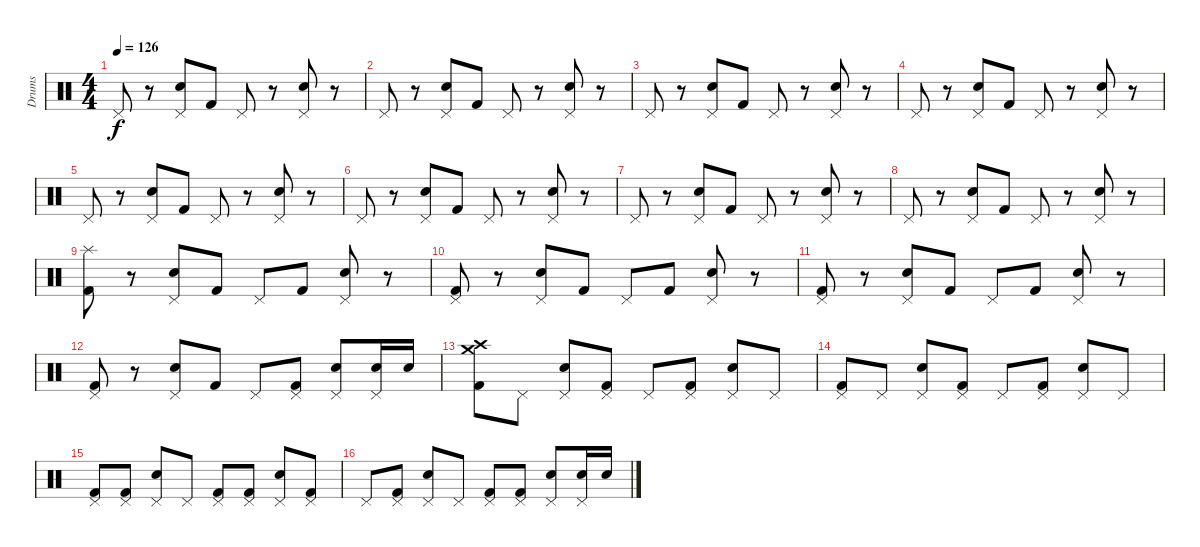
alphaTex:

\track ("Drums" "Drums") {instrument percussion}
\staff {score}
\articulation defaults
\ts (4 4)
\tempo 126
\clef neutral
\ks c "Pedal Hi-Hat (hit)".8{dy f}
r.8 ("Pedal Hi-Hat (hit)" "Snare (hit) 2").8 "Kick (hit) 2".8 "Pedal Hi-Hat (hit)".8 r.8 ("Pedal Hi-Hat (hit)" "Snare (hit) 2").8 r.8 |
"Pedal Hi-Hat (hit)".8 r.8 ("Pedal Hi-Hat (hit)" "Snare (hit) 2").8 "Kick (hit) 2".8 "Pedal Hi-Hat (hit)".8 r.8 ("Pedal Hi-Hat (hit)" "Snare (hit) 2").8 r.8 |
"Pedal Hi-Hat (hit)".8 r.8 ("Pedal Hi-Hat (hit)" "Snare (hit) 2").8 "Kick (hit) 2".8 "Pedal Hi-Hat (hit)".8 r.8 ("Pedal Hi-Hat (hit)" "Snare (hit) 2").8 r.8 |
"Pedal Hi-Hat (hit)".8 r.8 ("Pedal Hi-Hat (hit)" "Snare (hit) 2").8 "Kick (hit) 2".8 "Pedal Hi-Hat (hit)".8 r.8 ("Pedal Hi-Hat (hit)" "Snare (hit) 2").8 r.8 |
"Pedal Hi-Hat (hit)".8 r.8 ("Pedal Hi-Hat (hit)" "Snare (hit) 2").8 "Kick (hit) 2".8 "Pedal Hi-Hat (hit)".8 r.8 ("Pedal Hi-Hat (hit)" "Snare (hit) 2").8 r.8 |
"Pedal Hi-Hat (hit)".8 r.8 ("Pedal Hi-Hat (hit)" "Snare (hit) 2").8 "Kick (hit) 2".8 "Pedal Hi-Hat (hit)".8 r.8 ("Pedal Hi-Hat (hit)" "Snare (hit) 2").8 r.8 |
"Pedal Hi-Hat (hit)".8 r.8 ("Pedal Hi-Hat (hit)" "Snare (hit) 2").8 "Kick (hit) 2".8 "Pedal Hi-Hat (hit)".8 r.8 ("Pedal Hi-Hat (hit)" "Snare (hit) 2").8 r.8 |
"Pedal Hi-Hat (hit)".8 r.8 ("Pedal Hi-Hat (hit)" "Snare (hit) 2").8 "Kick (hit) 2".8 "Pedal Hi-Hat (hit)".8 r.8 ("Pedal Hi-Hat (hit)" "Snare (hit) 2").8 r.8 |
("Splash (hit)" "Kick (hit) 2").8 r.8 ("Pedal Hi-Hat (hit)" "Snare (hit) 2").8 "Kick (hit) 2".8 "Pedal Hi-Hat (hit)".8 "Kick (hit) 2".8 ("Pedal Hi-Hat (hit)" "Snare (hit) 2").8 r.8 |
("Pedal Hi-Hat (hit)" "Kick (hit) 2").8 r.8 ("Pedal Hi-Hat (hit)" "Snare (hit) 2").8 "Kick (hit) 2".8 "Pedal Hi-Hat (hit)".8 "Kick (hit) 2".8 ("Pedal Hi-Hat (hit)" "Snare (hit) 2").8 r.8 |
("Pedal Hi-Hat (hit)" "Kick (hit) 2").8 r.8 ("Pedal Hi-Hat (hit)" "Snare (hit) 2").8 "Kick (hit) 2".8 "Pedal Hi-Hat (hit)".8 "Kick (hit) 2".8 ("Pedal Hi-Hat (hit)" "Snare (hit) 2").8 r.8 |
("Pedal Hi-Hat (hit)" "Kick (hit) 2").8 r.8 ("Pedal Hi-Hat (hit)" "Snare (hit) 2").8 "Kick (hit) 2".8 "Pedal Hi-Hat (hit)".8 ("Pedal Hi-Hat (hit)" "Kick (hit) 2").8 ("Pedal Hi-Hat (hit)" "Snare (hit) 2").8 ("Pedal Hi-Hat (hit)" "Snare (hit) 2").16 "Snare (hit) 2".16 |
("Crash medium (hit)" "Crash high (hit)" "Kick (hit) 2").8 "Pedal Hi-Hat (hit)".8 ("Pedal Hi-Hat (hit)" "Snare (hit) 2").8 ("Pedal Hi-Hat (hit)" "Kick (hit) 2").8 "Pedal Hi-Hat (hit)".8 ("Pedal Hi-Hat (hit)" "Kick (hit) 2").8 ("Pedal Hi-Hat (hit)" "Snare (hit) 2").8 "Pedal Hi-Hat (hit)".8 |
("Pedal Hi-Hat (hit)" "Kick (hit) 2").8 "Pedal Hi-Hat (hit)".8 ("Pedal Hi-Hat (hit)" "Snare (hit) 2").8 ("Pedal Hi-Hat (hit)" "Kick (hit) 2").8 "Pedal Hi-Hat (hit)".8 ("Pedal Hi-Hat (hit)" "Kick (hit) 2").8 ("Pedal Hi-Hat (hit)" "Snare (hit) 2").8 "Pedal Hi-Hat (hit)".8 |
("Pedal Hi-Hat (hit)" "Kick (hit) 2").8 ("Pedal Hi-Hat (hit)" "Kick (hit) 2").8 ("Pedal Hi-Hat (hit)" "Snare (hit) 2").8 "Pedal Hi-Hat (hit)".8 ("Pedal Hi-Hat (hit)" "Kick (hit) 2").8 ("Pedal Hi-Hat (hit)" "Kick (hit) 2").8 ("Pedal Hi-Hat (hit)" "Snare (hit) 2").8 ("Pedal Hi-Hat (hit)" "Kick (hit) 2").8 |
"Pedal Hi-Hat (hit)".8 ("Pedal Hi-Hat (hit)" "Kick (hit) 2").8 ("Pedal Hi-Hat (hit)" "Snare (hit) 2").8 "Pedal Hi-Hat (hit)".8 ("Pedal Hi-Hat (hit)" "Kick (hit) 2").8 ("Pedal Hi-Hat (hit)" "Kick (hit) 2").8 ("Pedal Hi-Hat (hit)" "Snare (hit) 2").8 ("Pedal Hi-Hat (hit)" "Snare (hit) 2").16 "Snare (hit) 2".16
